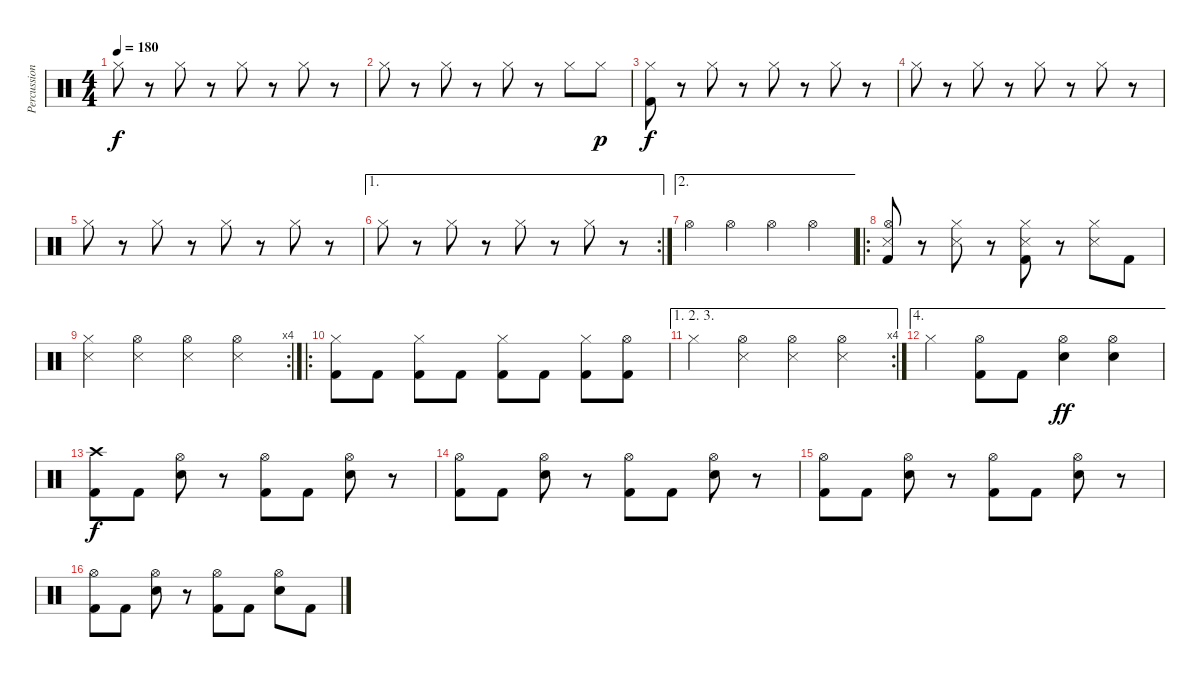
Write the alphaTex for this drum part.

\track ("Percussion" "Percussion") {instrument percussion}
\staff {score}
\articulation defaults
\ts (4 4)
\tempo 180
\clef neutral
\ks c "Hi-Hat (closed)".8{dy f}
r.8 "Hi-Hat (closed)".8 r.8 "Hi-Hat (closed)".8 r.8 "Hi-Hat (closed)".8 r.8 |
"Hi-Hat (closed)".8 r.8 "Hi-Hat (closed)".8 r.8 "Hi-Hat (closed)".8 r.8 "Hi-Hat (closed)".8 "Hi-Hat (closed)".8{dy p} |
("Hi-Hat (closed)" "Kick (hit) 2").8{dy f} r.8 "Hi-Hat (closed)".8 r.8 "Hi-Hat (closed)".8 r.8 "Hi-Hat (closed)".8 r.8 |
"Hi-Hat (closed)".8 r.8 "Hi-Hat (closed)".8 r.8 "Hi-Hat (closed)".8 r.8 "Hi-Hat (closed)".8 r.8 |
"Hi-Hat (closed)".8 r.8 "Hi-Hat (closed)".8 r.8 "Hi-Hat (closed)".8 r.8 "Hi-Hat (closed)".8 r.8 |
\ae 1
\rc 2 "Hi-Hat (closed)".8
r.8 "Hi-Hat (closed)".8 r.8 "Hi-Hat (closed)".8 r.8 "Hi-Hat (closed)".8 r.8 |
\ae 2 "Hi-Hat (open)".4 "Hi-Hat (open)".4 "Hi-Hat (open)".4 "Hi-Hat (open)".4
|
\ro
("Hi-Hat (open)" "Snare (side stick) 3" "Kick (hit) 2").8 r.8 ("Hi-Hat (closed)" "Snare (side stick) 3").8 r.8 ("Hi-Hat (closed)" "Snare (side stick) 3" "Kick (hit) 2").8 r.8 ("Hi-Hat (closed)" "Snare (side stick) 3").8 "Kick (hit) 2".8 |
\rc 4
("Hi-Hat (closed)" "Snare (side stick) 3").4 ("Hi-Hat (open)" "Snare (side stick) 3").4 ("Hi-Hat (open)" "Snare (side stick) 3").4 ("Hi-Hat (open)" "Snare (side stick) 3").4 |
\ro
("Hi-Hat (closed)" "Kick (hit) 2").8 "Kick (hit) 2".8 ("Hi-Hat (closed)" "Kick (hit) 2").8 "Kick (hit) 2".8 ("Hi-Hat (closed)" "Kick (hit) 2").8 "Kick (hit) 2".8 ("Hi-Hat (closed)" "Kick (hit) 2").8 ("Hi-Hat (open)" "Kick (hit) 2").8 |
\ae (1 2 3)
\rc 4 "Hi-Hat (closed)".4
("Hi-Hat (open)" "Snare (side stick) 3").4 ("Hi-Hat (open)" "Snare (side stick) 3").4 ("Hi-Hat (open)" "Snare (side stick) 3").4 |
\ae 4 "Hi-Hat (closed)".4
("Hi-Hat (open)" "Kick (hit) 2").8 "Kick (hit) 2".8 ("Hi-Hat (open)" "Electric Snare (hit)").4{dy ff} ("Hi-Hat (open)" "Electric Snare (hit)").4 |
("Crash high (hit)" "Kick (hit) 2").8{dy f} "Kick (hit) 2".8 ("Hi-Hat (open)" "Electric Snare (hit)").8 r.8 ("Hi-Hat (open)" "Kick (hit) 2").8 "Kick (hit) 2".8 ("Hi-Hat (open)" "Electric Snare (hit)").8 r.8 |
("Hi-Hat (open)" "Kick (hit) 2").8 "Kick (hit) 2".8 ("Hi-Hat (open)" "Electric Snare (hit)").8 r.8 ("Hi-Hat (open)" "Kick (hit) 2").8 "Kick (hit) 2".8 ("Hi-Hat (open)" "Electric Snare (hit)").8 r.8 |
("Hi-Hat (open)" "Kick (hit) 2").8 "Kick (hit) 2".8 ("Hi-Hat (open)" "Electric Snare (hit)").8 r.8 ("Hi-Hat (open)" "Kick (hit) 2").8 "Kick (hit) 2".8 ("Hi-Hat (open)" "Electric Snare (hit)").8 r.8 |
("Hi-Hat (open)" "Kick (hit) 2").8 "Kick (hit) 2".8 ("Hi-Hat (open)" "Electric Snare (hit)").8 r.8 ("Hi-Hat (open)" "Kick (hit) 2").8 "Kick (hit) 2".8 ("Hi-Hat (open)" "Electric Snare (hit)").8 "Kick (hit) 2".8
